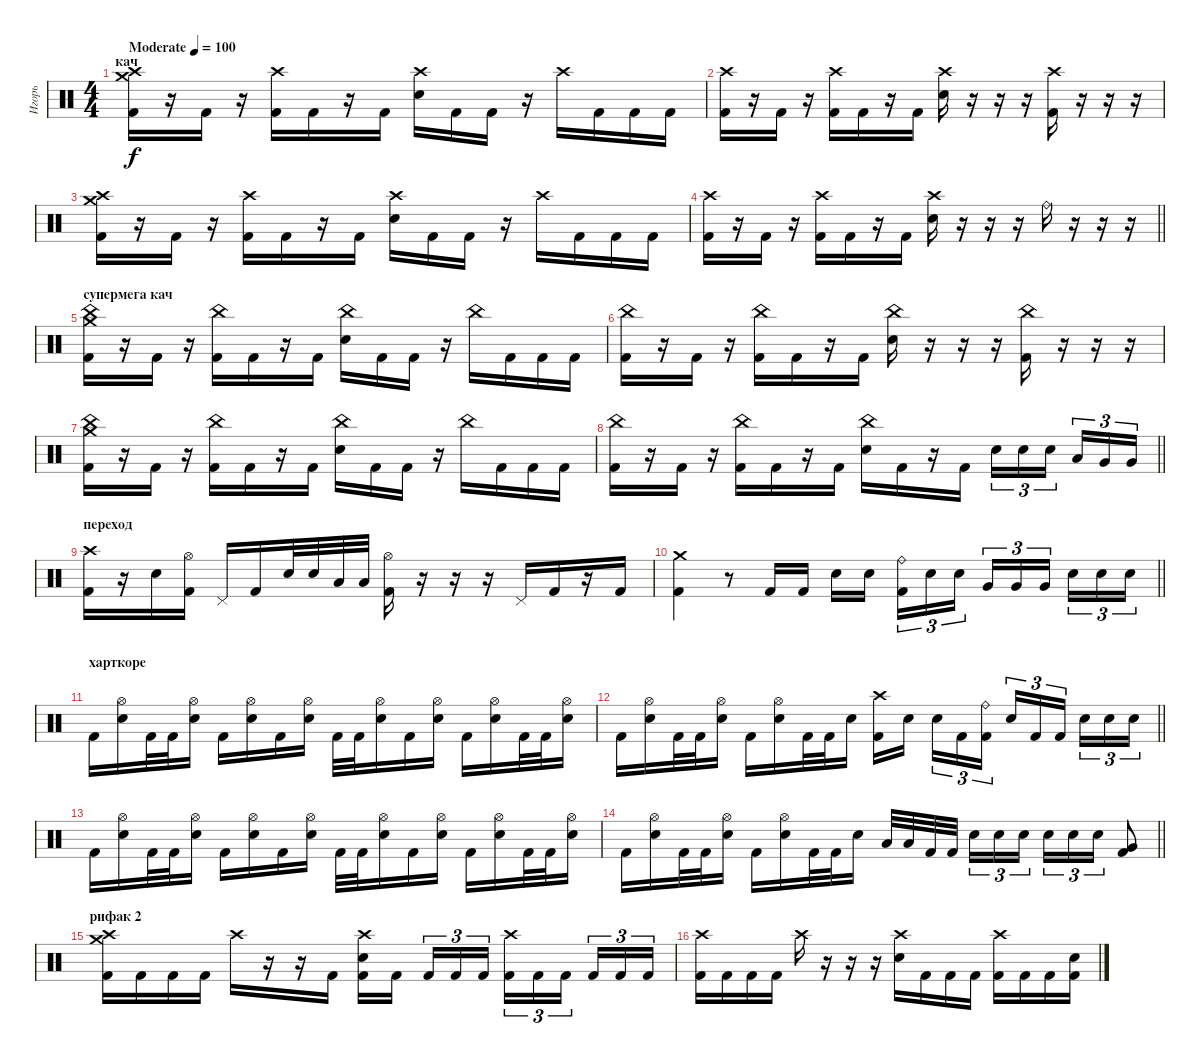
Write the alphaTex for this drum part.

\track ("Игорь" "Игорь") {instrument percussion}
\staff {score}
\articulation defaults
\ts (4 4)
\section ("" "кач")
\tempo (100 "Moderate")
\clef neutral
\ks c
("Crash medium (hit)" "Crash high (hit)" "Kick (hit) 2").16{dy f} r.16 "Kick (hit) 2".16 r.16 ("Crash high (hit)" "Kick (hit) 2").16 "Kick (hit) 2".16 r.16 "Kick (hit) 2".16 ("Crash high (hit)" "Electric Snare (hit)").16 "Kick (hit) 2".16 "Kick (hit) 2".16 r.16 "Crash high (hit)".16 "Kick (hit) 2".16 "Kick (hit) 2".16 "Kick (hit) 2".16 |
("Crash high (hit)" "Kick (hit) 2").16 r.16 "Kick (hit) 2".16 r.16 ("Crash high (hit)" "Kick (hit) 2").16 "Kick (hit) 2".16 r.16 "Kick (hit) 2".16 ("Crash high (hit)" "Electric Snare (hit)").16 r.16 r.16 r.16 ("Crash high (hit)" "Kick (hit) 2").16 r.16 r.16 r.16 |
("Crash medium (hit)" "Crash high (hit)" "Kick (hit) 2").16 r.16 "Kick (hit) 2".16 r.16 ("Crash high (hit)" "Kick (hit) 2").16 "Kick (hit) 2".16 r.16 "Kick (hit) 2".16 ("Crash high (hit)" "Electric Snare (hit)").16 "Kick (hit) 2".16 "Kick (hit) 2".16 r.16 "Crash high (hit)".16 "Kick (hit) 2".16 "Kick (hit) 2".16 "Kick (hit) 2".16 |
\barLineRight lightlight
("Crash high (hit)" "Kick (hit) 2").16 r.16 "Kick (hit) 2".16 r.16 ("Crash high (hit)" "Kick (hit) 2").16 "Kick (hit) 2".16 r.16 "Kick (hit) 2".16 ("Crash high (hit)" "Electric Snare (hit)").16 r.16 r.16 r.16 "Ride (bell)".16 r.16 r.16 r.16 |
\section ("" "супермега кач")
("Crash medium (hit)" "China (hit)" "Kick (hit) 2").16 r.16 "Kick (hit) 2".16 r.16 ("China (hit)" "Kick (hit) 2").16 "Kick (hit) 2".16 r.16 "Kick (hit) 2".16 ("China (hit)" "Electric Snare (hit)").16 "Kick (hit) 2".16 "Kick (hit) 2".16 r.16 "China (hit)".16 "Kick (hit) 2".16 "Kick (hit) 2".16 "Kick (hit) 2".16 |
("China (hit)" "Kick (hit) 2").16 r.16 "Kick (hit) 2".16 r.16 ("China (hit)" "Kick (hit) 2").16 "Kick (hit) 2".16 r.16 "Kick (hit) 2".16 ("China (hit)" "Electric Snare (hit)").16 r.16 r.16 r.16 ("China (hit)" "Kick (hit) 2").16 r.16 r.16 r.16 |
("Crash medium (hit)" "China (hit)" "Kick (hit) 2").16 r.16 "Kick (hit) 2".16 r.16 ("China (hit)" "Kick (hit) 2").16 "Kick (hit) 2".16 r.16 "Kick (hit) 2".16 ("China (hit)" "Electric Snare (hit)").16 "Kick (hit) 2".16 "Kick (hit) 2".16 r.16 "China (hit)".16 "Kick (hit) 2".16 "Kick (hit) 2".16 "Kick (hit) 2".16 |
\barLineRight lightlight
("China (hit)" "Kick (hit) 2").16 r.16 "Kick (hit) 2".16 r.16 ("China (hit)" "Kick (hit) 2").16 "Kick (hit) 2".16 r.16 "Kick (hit) 2".16 ("China (hit)" "Electric Snare (hit)").16 "Kick (hit) 2".16 r.16 "Kick (hit) 2".16 "Electric Snare (hit)".16{tu (3 2)} "Electric Snare (hit)".16{tu (3 2)} "Electric Snare (hit)".16{tu (3 2) beam splitsecondary} "Low Tom (hit)".16{tu (3 2)} "Very Low Tom (hit)".16{tu (3 2)} "Very Low Tom (hit)".16{tu (3 2)} |
\section ("" "переход")
("Crash high (hit)" "Kick (hit) 2").16 r.16 "Electric Snare (hit)".16 ("Hi-Hat (open)" "Kick (hit) 2").16 "Pedal Hi-Hat (hit)".16 "Kick (hit) 2".16 "Electric Snare (hit)".32 "Electric Snare (hit)".32 "Low Tom (hit)".32 "Low Tom (hit)".32 ("Hi-Hat (open)" "Kick (hit) 2").16 r.16 r.16 r.16 "Pedal Hi-Hat (hit)".16 "Kick (hit) 2".16 r.16 "Kick (hit) 2".16 |
\barLineRight lightlight
("Crash medium (hit)" "Kick (hit) 2").4 r.8 "Kick (hit) 2".16 "Kick (hit) 2".16 "Electric Snare (hit)".16 "Electric Snare (hit)".16{beam splitsecondary} ("Ride (bell)" "Kick (hit) 2").16{tu (3 2)} "Electric Snare (hit)".16{tu (3 2)} "Electric Snare (hit)".16{tu (3 2)} "Very Low Tom (hit)".16{tu (3 2)} "Very Low Tom (hit)".16{tu (3 2)} "Very Low Tom (hit)".16{tu (3 2) beam splitsecondary} "Electric Snare (hit)".16{tu (3 2)} "Electric Snare (hit)".16{tu (3 2)} "Electric Snare (hit)".16{tu (3 2)} |
\section ("" "харткоре")
"Kick (hit) 2".16 ("Hi-Hat (open)" "Electric Snare (hit)").16 "Kick (hit) 2".32 "Kick (hit) 2".32 ("Hi-Hat (open)" "Electric Snare (hit)").16 "Kick (hit) 2".16 ("Hi-Hat (open)" "Electric Snare (hit)").16 "Kick (hit) 2".16 ("Hi-Hat (open)" "Electric Snare (hit)").16 "Kick (hit) 2".32 "Kick (hit) 2".32 ("Hi-Hat (open)" "Electric Snare (hit)").16 "Kick (hit) 2".16 ("Hi-Hat (open)" "Electric Snare (hit)").16 "Kick (hit) 2".16 ("Hi-Hat (open)" "Electric Snare (hit)").16 "Kick (hit) 2".32 "Kick (hit) 2".32 ("Hi-Hat (open)" "Electric Snare (hit)").16 |
\barLineRight lightlight "Kick (hit) 2".16
("Hi-Hat (open)" "Electric Snare (hit)").16 "Kick (hit) 2".32 "Kick (hit) 2".32 ("Hi-Hat (open)" "Electric Snare (hit)").16 "Kick (hit) 2".16 ("Hi-Hat (open)" "Electric Snare (hit)").16 "Kick (hit) 2".32 "Kick (hit) 2".32 "Electric Snare (hit)".16 ("Crash high (hit)" "Kick (hit) 2").16 "Electric Snare (hit)".16{beam splitsecondary} "Electric Snare (hit)".16{tu (3 2)} "Kick (hit) 2".16{tu (3 2)} ("Ride (bell)" "Kick (hit) 2").16{tu (3 2)} "Electric Snare (hit)".16{tu (3 2)} "Kick (hit) 2".16{tu (3 2)} "Kick (hit) 2".16{tu (3 2) beam splitsecondary} "Electric Snare (hit)".16{tu (3 2)} "Electric Snare (hit)".16{tu (3 2)} "Electric Snare (hit)".16{tu (3 2)} |
"Kick (hit) 2".16 ("Hi-Hat (open)" "Electric Snare (hit)").16 "Kick (hit) 2".32 "Kick (hit) 2".32 ("Hi-Hat (open)" "Electric Snare (hit)").16 "Kick (hit) 2".16 ("Hi-Hat (open)" "Electric Snare (hit)").16 "Kick (hit) 2".16 ("Hi-Hat (open)" "Electric Snare (hit)").16 "Kick (hit) 2".32 "Kick (hit) 2".32 ("Hi-Hat (open)" "Electric Snare (hit)").16 "Kick (hit) 2".16 ("Hi-Hat (open)" "Electric Snare (hit)").16 "Kick (hit) 2".16 ("Hi-Hat (open)" "Electric Snare (hit)").16 "Kick (hit) 2".32 "Kick (hit) 2".32 ("Hi-Hat (open)" "Electric Snare (hit)").16 |
\barLineRight lightlight "Kick (hit) 2".16
("Hi-Hat (open)" "Electric Snare (hit)").16 "Kick (hit) 2".32 "Kick (hit) 2".32 ("Hi-Hat (open)" "Electric Snare (hit)").16 "Kick (hit) 2".16 ("Hi-Hat (open)" "Electric Snare (hit)").16 "Kick (hit) 2".32 "Kick (hit) 2".32 "Electric Snare (hit)".16 "Low Tom (hit)".32 "Low Tom (hit)".32 "Kick (hit) 2".32 "Kick (hit) 2".32{beam splitsecondary} "Electric Snare (hit)".16{tu (3 2)} "Electric Snare (hit)".16{tu (3 2)} "Electric Snare (hit)".16{tu (3 2)} "Electric Snare (hit)".16{tu (3 2)} "Electric Snare (hit)".16{tu (3 2)} "Electric Snare (hit)".16{tu (3 2)} ("Very Low Tom (hit)" "Kick (hit) 2").8 |
\section ("" "рифак 2")
("Crash medium (hit)" "Crash high (hit)" "Kick (hit) 2").16 "Kick (hit) 2".16 "Kick (hit) 2".16 "Kick (hit) 2".16 "Crash high (hit)".16 r.16 r.16 "Kick (hit) 2".16 ("Crash high (hit)" "Electric Snare (hit)" "Kick (hit) 2").16 "Kick (hit) 2".16{beam splitsecondary} "Kick (hit) 2".16{tu (3 2)} "Kick (hit) 2".16{tu (3 2)} "Kick (hit) 2".16{tu (3 2)} ("Crash high (hit)" "Kick (hit) 2").16{tu (3 2)} "Kick (hit) 2".16{tu (3 2)} "Kick (hit) 2".16{tu (3 2) beam splitsecondary} "Kick (hit) 2".16{tu (3 2)} "Kick (hit) 2".16{tu (3 2)} "Kick (hit) 2".16{tu (3 2)} |
("Crash high (hit)" "Kick (hit) 2").16 "Kick (hit) 2".16 "Kick (hit) 2".16 "Kick (hit) 2".16 "Crash high (hit)".16 r.16 r.16 r.16 ("Crash high (hit)" "Electric Snare (hit)").16 "Kick (hit) 2".16 "Kick (hit) 2".16 "Kick (hit) 2".16 ("Crash high (hit)" "Kick (hit) 2").16 "Kick (hit) 2".16 "Kick (hit) 2".16 ("Electric Snare (hit)" "Kick (hit) 2").16
